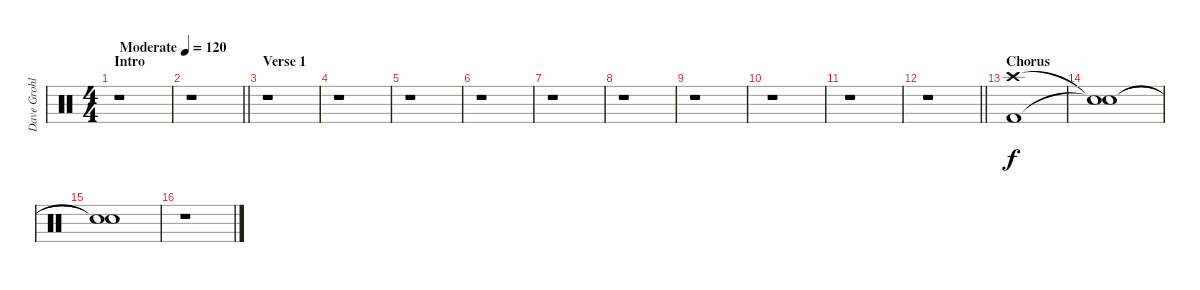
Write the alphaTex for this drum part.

\track ("Dave Grohl - Drums" "Dave Grohl") {instrument percussion}
\staff {score}
\articulation defaults
\ts (4 4)
\section ("" "Intro")
\tempo (120 "Moderate")
\clef neutral
\ks c
r.1{dy f} |
\barLineRight lightlight
r.1 |
\section ("" "Verse 1")
r.1 |
r.1 |
r.1 |
r.1 |
r.1 |
r.1 |
r.1 |
r.1 |
r.1 |
\barLineRight lightlight
r.1 |
\section ("" "Chorus")
("Kick (hit) 2" "Crash high (hit)").1 |
("Snare (hit)"{t} "Snare (hit)"{t}).1 |
("Snare (hit)"{t} "Snare (hit)"{t}).1 |
r.1
